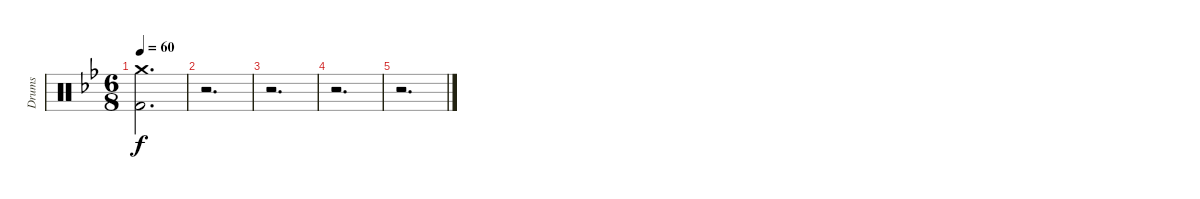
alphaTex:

\track ("Drums" "Drums") {instrument percussion}
\staff {score}
\articulation defaults
\ts (6 8)
\tempo 60
\clef neutral
\ks bb
("Crash medium (hit)" "Kick (hit) 2").2{d dy f} |
r.2{d} |
r.2{d} |
r.2{d} |
r.2{d}
